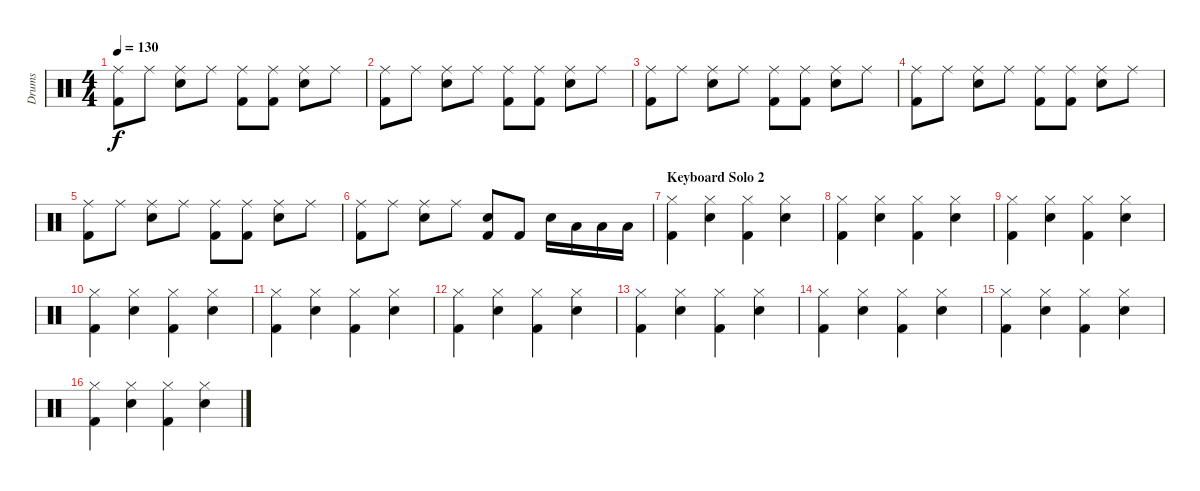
\track ("Drums" "Drums") {instrument percussion}
\staff {score}
\articulation defaults
\ts (4 4)
\tempo 130
\clef neutral
\ks c
("Kick (hit) 2" "Ride (middle)").8{dy f} "Ride (middle)".8 ("Snare (hit) 2" "Ride (middle)").8 "Ride (middle)".8 ("Kick (hit) 2" "Ride (middle)").8 ("Kick (hit) 2" "Ride (middle)").8 ("Snare (hit) 2" "Ride (middle)").8 "Ride (middle)".8 |
("Kick (hit) 2" "Ride (middle)").8 "Ride (middle)".8 ("Snare (hit) 2" "Ride (middle)").8 "Ride (middle)".8 ("Kick (hit) 2" "Ride (middle)").8 ("Kick (hit) 2" "Ride (middle)").8 ("Snare (hit) 2" "Ride (middle)").8 "Ride (middle)".8 |
("Kick (hit) 2" "Ride (middle)").8 "Ride (middle)".8 ("Snare (hit) 2" "Ride (middle)").8 "Ride (middle)".8 ("Kick (hit) 2" "Ride (middle)").8 ("Kick (hit) 2" "Ride (middle)").8 ("Snare (hit) 2" "Ride (middle)").8 "Ride (middle)".8 |
("Kick (hit) 2" "Ride (middle)").8 "Ride (middle)".8 ("Snare (hit) 2" "Ride (middle)").8 "Ride (middle)".8 ("Kick (hit) 2" "Ride (middle)").8 ("Kick (hit) 2" "Ride (middle)").8 ("Snare (hit) 2" "Ride (middle)").8 "Ride (middle)".8 |
("Kick (hit) 2" "Ride (middle)").8 "Ride (middle)".8 ("Snare (hit) 2" "Ride (middle)").8 "Ride (middle)".8 ("Kick (hit) 2" "Ride (middle)").8 ("Kick (hit) 2" "Ride (middle)").8 ("Snare (hit) 2" "Ride (middle)").8 "Ride (middle)".8 |
("Kick (hit) 2" "Ride (middle)").8 "Ride (middle)".8 ("Snare (hit) 2" "Ride (middle)").8 "Ride (middle)".8 ("Kick (hit) 2" "Snare (hit) 2").8 "Kick (hit) 2".8 "Snare (hit) 2".16 "Low Tom (hit)".16 "Low Tom (hit)".16 "Low Tom (hit)".16 |
\section ("" "Keyboard Solo 2")
("Kick (hit) 2" "Hi-Hat (closed)").4 ("Hi-Hat (closed)" "Snare (hit) 2").4 ("Kick (hit) 2" "Hi-Hat (closed)").4 ("Hi-Hat (closed)" "Snare (hit) 2").4 |
("Kick (hit) 2" "Hi-Hat (closed)").4 ("Hi-Hat (closed)" "Snare (hit) 2").4 ("Kick (hit) 2" "Hi-Hat (closed)").4 ("Hi-Hat (closed)" "Snare (hit) 2").4 |
("Kick (hit) 2" "Hi-Hat (closed)").4 ("Hi-Hat (closed)" "Snare (hit) 2").4 ("Kick (hit) 2" "Hi-Hat (closed)").4 ("Hi-Hat (closed)" "Snare (hit) 2").4 |
("Kick (hit) 2" "Hi-Hat (closed)").4 ("Hi-Hat (closed)" "Snare (hit) 2").4 ("Kick (hit) 2" "Hi-Hat (closed)").4 ("Hi-Hat (closed)" "Snare (hit) 2").4 |
("Kick (hit) 2" "Hi-Hat (closed)").4 ("Hi-Hat (closed)" "Snare (hit) 2").4 ("Kick (hit) 2" "Hi-Hat (closed)").4 ("Hi-Hat (closed)" "Snare (hit) 2").4 |
("Kick (hit) 2" "Hi-Hat (closed)").4 ("Hi-Hat (closed)" "Snare (hit) 2").4 ("Kick (hit) 2" "Hi-Hat (closed)").4 ("Hi-Hat (closed)" "Snare (hit) 2").4 |
("Kick (hit) 2" "Hi-Hat (closed)").4 ("Hi-Hat (closed)" "Snare (hit) 2").4 ("Kick (hit) 2" "Hi-Hat (closed)").4 ("Hi-Hat (closed)" "Snare (hit) 2").4 |
("Kick (hit) 2" "Hi-Hat (closed)").4 ("Hi-Hat (closed)" "Snare (hit) 2").4 ("Kick (hit) 2" "Hi-Hat (closed)").4 ("Hi-Hat (closed)" "Snare (hit) 2").4 |
("Kick (hit) 2" "Hi-Hat (closed)").4 ("Hi-Hat (closed)" "Snare (hit) 2").4 ("Kick (hit) 2" "Hi-Hat (closed)").4 ("Hi-Hat (closed)" "Snare (hit) 2").4 |
("Kick (hit) 2" "Hi-Hat (closed)").4 ("Hi-Hat (closed)" "Snare (hit) 2").4 ("Kick (hit) 2" "Hi-Hat (closed)").4 ("Hi-Hat (closed)" "Snare (hit) 2").4
